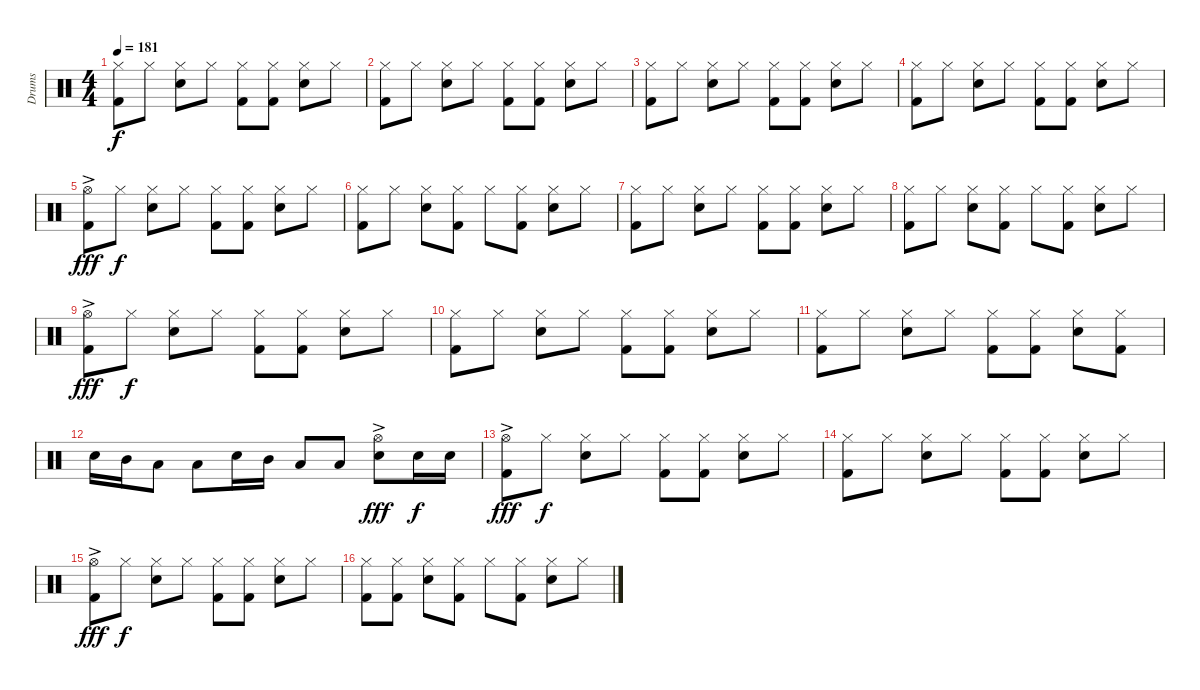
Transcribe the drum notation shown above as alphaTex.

\track ("Drums" "Drums") {instrument percussion}
\staff {score}
\articulation defaults
\ts (4 4)
\tempo 181
\clef neutral
\ks c
("Hi-Hat (closed)" "Kick (hit) 2").8{dy f} "Hi-Hat (closed)".8 ("Hi-Hat (closed)" "Snare (hit) 2").8 "Hi-Hat (closed)".8 ("Hi-Hat (closed)" "Kick (hit) 2").8 ("Hi-Hat (closed)" "Kick (hit) 2").8 ("Hi-Hat (closed)" "Snare (hit) 2").8 "Hi-Hat (closed)".8 |
("Hi-Hat (closed)" "Kick (hit) 2").8 "Hi-Hat (closed)".8 ("Hi-Hat (closed)" "Snare (hit) 2").8 "Hi-Hat (closed)".8 ("Hi-Hat (closed)" "Kick (hit) 2").8 ("Hi-Hat (closed)" "Kick (hit) 2").8 ("Hi-Hat (closed)" "Snare (hit) 2").8 "Hi-Hat (closed)".8 |
("Hi-Hat (closed)" "Kick (hit) 2").8 "Hi-Hat (closed)".8 ("Hi-Hat (closed)" "Snare (hit) 2").8 "Hi-Hat (closed)".8 ("Hi-Hat (closed)" "Kick (hit) 2").8 ("Hi-Hat (closed)" "Kick (hit) 2").8 ("Hi-Hat (closed)" "Snare (hit) 2").8 "Hi-Hat (closed)".8 |
("Hi-Hat (closed)" "Kick (hit) 2").8 "Hi-Hat (closed)".8 ("Hi-Hat (closed)" "Snare (hit) 2").8 "Hi-Hat (closed)".8 ("Hi-Hat (closed)" "Kick (hit) 2").8 ("Hi-Hat (closed)" "Kick (hit) 2").8 ("Hi-Hat (closed)" "Snare (hit) 2").8 "Hi-Hat (closed)".8 |
("Hi-Hat (open)"{ac} "Kick (hit) 2").8{dy fff} "Hi-Hat (closed)".8{dy f} ("Hi-Hat (closed)" "Snare (hit) 2").8 "Hi-Hat (closed)".8 ("Hi-Hat (closed)" "Kick (hit) 2").8 ("Hi-Hat (closed)" "Kick (hit) 2").8 ("Hi-Hat (closed)" "Snare (hit) 2").8 "Hi-Hat (closed)".8 |
("Hi-Hat (closed)" "Kick (hit) 2").8 "Hi-Hat (closed)".8 ("Hi-Hat (closed)" "Snare (hit) 2").8 ("Hi-Hat (closed)" "Kick (hit) 2").8 "Hi-Hat (closed)".8 ("Hi-Hat (closed)" "Kick (hit) 2").8 ("Hi-Hat (closed)" "Snare (hit) 2").8 "Hi-Hat (closed)".8 |
("Hi-Hat (closed)" "Kick (hit) 2").8 "Hi-Hat (closed)".8 ("Hi-Hat (closed)" "Snare (hit) 2").8 "Hi-Hat (closed)".8 ("Hi-Hat (closed)" "Kick (hit) 2").8 ("Hi-Hat (closed)" "Kick (hit) 2").8 ("Hi-Hat (closed)" "Snare (hit) 2").8 "Hi-Hat (closed)".8 |
("Hi-Hat (closed)" "Kick (hit) 2").8 "Hi-Hat (closed)".8 ("Hi-Hat (closed)" "Snare (hit) 2").8 ("Hi-Hat (closed)" "Kick (hit) 2").8 "Hi-Hat (closed)".8 ("Hi-Hat (closed)" "Kick (hit) 2").8 ("Hi-Hat (closed)" "Snare (hit) 2").8 "Hi-Hat (closed)".8 |
("Hi-Hat (open)"{ac} "Kick (hit) 2").8{dy fff} "Hi-Hat (closed)".8{dy f} ("Hi-Hat (closed)" "Snare (hit) 2").8 "Hi-Hat (closed)".8 ("Hi-Hat (closed)" "Kick (hit) 2").8 ("Hi-Hat (closed)" "Kick (hit) 2").8 ("Hi-Hat (closed)" "Snare (hit) 2").8 "Hi-Hat (closed)".8 |
("Hi-Hat (closed)" "Kick (hit) 2").8 "Hi-Hat (closed)".8 ("Hi-Hat (closed)" "Snare (hit) 2").8 "Hi-Hat (closed)".8 ("Hi-Hat (closed)" "Kick (hit) 2").8 ("Hi-Hat (closed)" "Kick (hit) 2").8 ("Hi-Hat (closed)" "Snare (hit) 2").8 "Hi-Hat (closed)".8 |
("Hi-Hat (closed)" "Kick (hit) 2").8 "Hi-Hat (closed)".8 ("Hi-Hat (closed)" "Snare (hit) 2").8 "Hi-Hat (closed)".8 ("Hi-Hat (closed)" "Kick (hit) 2").8 ("Hi-Hat (closed)" "Kick (hit) 2").8 ("Hi-Hat (closed)" "Snare (hit) 2").8 ("Hi-Hat (closed)" "Kick (hit) 2").8 |
"Snare (hit) 2".16 "Mid Tom (hit)".16 "Low Tom (hit)".8 "Low Tom (hit)".8 "Snare (hit) 2".16 "Mid Tom (hit)".16 "Low Tom (hit)".8 "Low Tom (hit)".8 ("Hi-Hat (open)"{ac} "Snare (hit) 2").8{dy fff} "Snare (hit) 2".16{dy f} "Snare (hit) 2".16 |
("Hi-Hat (open)"{ac} "Kick (hit) 2").8{dy fff} "Hi-Hat (closed)".8{dy f} ("Hi-Hat (closed)" "Snare (hit) 2").8 "Hi-Hat (closed)".8 ("Hi-Hat (closed)" "Kick (hit) 2").8 ("Hi-Hat (closed)" "Kick (hit) 2").8 ("Hi-Hat (closed)" "Snare (hit) 2").8 "Hi-Hat (closed)".8 |
("Hi-Hat (closed)" "Kick (hit) 2").8 "Hi-Hat (closed)".8 ("Hi-Hat (closed)" "Snare (hit) 2").8 "Hi-Hat (closed)".8 ("Hi-Hat (closed)" "Kick (hit) 2").8 ("Hi-Hat (closed)" "Kick (hit) 2").8 ("Hi-Hat (closed)" "Snare (hit) 2").8 "Hi-Hat (closed)".8 |
("Hi-Hat (open)"{ac} "Kick (hit) 2").8{dy fff} "Hi-Hat (closed)".8{dy f} ("Hi-Hat (closed)" "Snare (hit) 2").8 "Hi-Hat (closed)".8 ("Hi-Hat (closed)" "Kick (hit) 2").8 ("Hi-Hat (closed)" "Kick (hit) 2").8 ("Hi-Hat (closed)" "Snare (hit) 2").8 "Hi-Hat (closed)".8 |
("Hi-Hat (closed)" "Kick (hit) 2").8 ("Hi-Hat (closed)" "Kick (hit) 2").8 ("Hi-Hat (closed)" "Snare (hit) 2").8 ("Hi-Hat (closed)" "Kick (hit) 2").8 "Hi-Hat (closed)".8 ("Hi-Hat (closed)" "Kick (hit) 2").8 ("Hi-Hat (closed)" "Snare (hit) 2").8 "Hi-Hat (closed)".8
